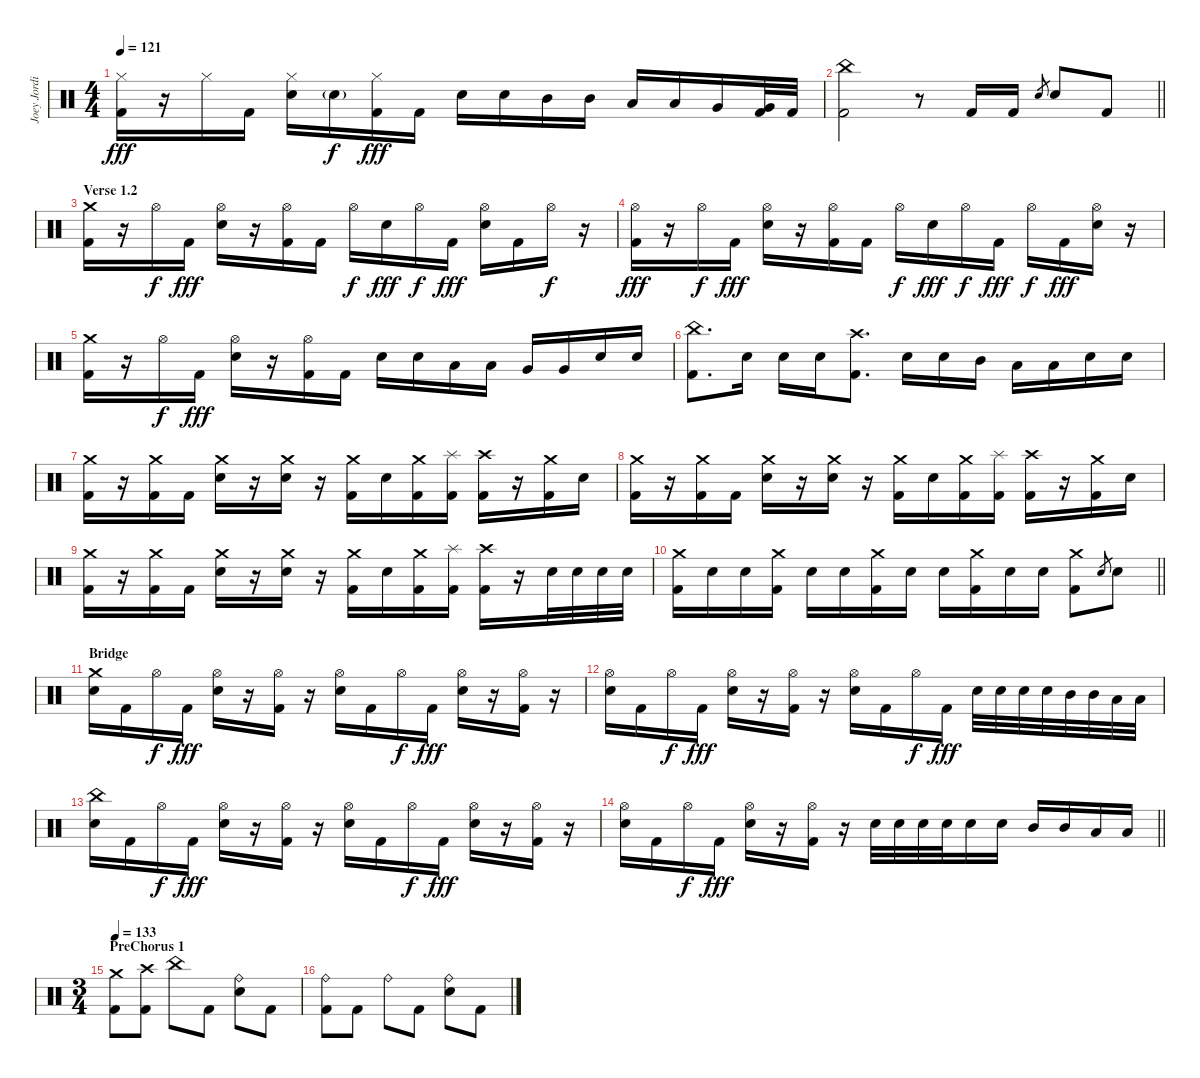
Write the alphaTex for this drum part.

\track ("Joey Jordison" "Joey Jordi") {instrument percussion}
\staff {score}
\articulation defaults
\ts (4 4)
\tempo 121
\clef neutral
\ks c
("Hi-Hat (closed)" "Kick (hit) 2").16{dy fff} r.16 "Hi-Hat (closed)".16 "Kick (hit) 2".16 ("Hi-Hat (closed)" "Electric Snare (hit)").16 "Electric Snare (hit)"{g}.16{dy f} ("Hi-Hat (closed)" "Kick (hit) 2").16{dy fff} "Kick (hit) 2".16 "Electric Snare (hit)".16 "Electric Snare (hit)".16 "Mid Tom (hit)".16 "Mid Tom (hit)".16 "Low Tom (hit)".16 "Low Tom (hit)".16 "Very Low Tom (hit)".16 ("Very Low Tom (hit)" "Kick (hit) 2").32 "Kick (hit) 2".32 |
\barLineRight lightlight
("China (hit)" "Kick (hit) 2").2 r.8 "Kick (hit) 2".16 "Kick (hit) 2".16 "Electric Snare (hit)".8{gr} "Electric Snare (hit)".8 "Kick (hit) 2".8 |
\section ("" "Verse 1.2")
("Crash medium (hit)" "Kick (hit) 2").16 r.16 "Hi-Hat (open)".16{dy f} "Kick (hit) 2".16{dy fff} ("Hi-Hat (open)" "Electric Snare (hit)").16 r.16 ("Hi-Hat (open)" "Kick (hit) 2").16 "Kick (hit) 2".16 "Hi-Hat (open)".16{dy f} "Electric Snare (hit)".16{dy fff} "Hi-Hat (open)".16{dy f} "Kick (hit) 2".16{dy fff} ("Hi-Hat (open)" "Electric Snare (hit)").16 "Kick (hit) 2".16 "Hi-Hat (open)".16{dy f} r.16 |
("Hi-Hat (open)" "Kick (hit) 2").16{dy fff} r.16 "Hi-Hat (open)".16{dy f} "Kick (hit) 2".16{dy fff} ("Hi-Hat (open)" "Electric Snare (hit)").16 r.16 ("Hi-Hat (open)" "Kick (hit) 2").16 "Kick (hit) 2".16 "Hi-Hat (open)".16{dy f} "Electric Snare (hit)".16{dy fff} "Hi-Hat (open)".16{dy f} "Kick (hit) 2".16{dy fff} "Hi-Hat (open)".16{dy f} "Kick (hit) 2".16{dy fff} ("Hi-Hat (open)" "Electric Snare (hit)").16 r.16 |
("Crash medium (hit)" "Kick (hit) 2").16 r.16 "Hi-Hat (open)".16{dy f} "Kick (hit) 2".16{dy fff} ("Hi-Hat (open)" "Electric Snare (hit)").16 r.16 ("Hi-Hat (open)" "Kick (hit) 2").16 "Kick (hit) 2".16 "Electric Snare (hit)".16 "Electric Snare (hit)".16 "Low Tom (hit)".16 "Low Tom (hit)".16 "Very Low Tom (hit)".16 "Very Low Tom (hit)".16 "Electric Snare (hit)".16 "Electric Snare (hit)".16 |
("China (hit)" "Kick (hit) 2").8{d} "Electric Snare (hit)".16 "Electric Snare (hit)".16 "Electric Snare (hit)".16 ("Crash high (hit)" "Kick (hit) 2").8{d} "Electric Snare (hit)".16 "Electric Snare (hit)".16 "Mid Tom (hit)".16 "Low Tom (hit)".16 "Low Tom (hit)".16 "Electric Snare (hit)".16 "Electric Snare (hit)".16 |
("Crash medium (hit)" "Kick (hit) 2").16 r.16 ("Crash medium (hit)" "Kick (hit) 2").16 "Kick (hit) 2".16 ("Crash medium (hit)" "Electric Snare (hit)").16 r.16 ("Crash medium (hit)" "Electric Snare (hit)").16 r.16 ("Crash medium (hit)" "Kick (hit) 2").16 "Electric Snare (hit)".16 ("Crash medium (hit)" "Kick (hit) 2").16 ("Splash (hit)" "Kick (hit) 2").16 ("Crash high (hit)" "Kick (hit) 2").16 r.16 ("Crash medium (hit)" "Kick (hit) 2").16 "Electric Snare (hit)".16 |
("Crash medium (hit)" "Kick (hit) 2").16 r.16 ("Crash medium (hit)" "Kick (hit) 2").16 "Kick (hit) 2".16 ("Crash medium (hit)" "Electric Snare (hit)").16 r.16 ("Crash medium (hit)" "Electric Snare (hit)").16 r.16 ("Crash medium (hit)" "Kick (hit) 2").16 "Electric Snare (hit)".16 ("Crash medium (hit)" "Kick (hit) 2").16 ("Splash (hit)" "Kick (hit) 2").16 ("Crash high (hit)" "Kick (hit) 2").16 r.16 ("Crash medium (hit)" "Kick (hit) 2").16 "Electric Snare (hit)".16 |
("Crash medium (hit)" "Kick (hit) 2").16 r.16 ("Crash medium (hit)" "Kick (hit) 2").16 "Kick (hit) 2".16 ("Crash medium (hit)" "Electric Snare (hit)").16 r.16 ("Crash medium (hit)" "Electric Snare (hit)").16 r.16 ("Crash medium (hit)" "Kick (hit) 2").16 "Electric Snare (hit)".16 ("Crash medium (hit)" "Kick (hit) 2").16 ("Splash (hit)" "Kick (hit) 2").16 ("Crash high (hit)" "Kick (hit) 2").16 r.16 "Electric Snare (hit)".32 "Electric Snare (hit)".32 "Electric Snare (hit)".32 "Electric Snare (hit)".32 |
\barLineRight lightlight
("Crash medium (hit)" "Kick (hit) 2").16 "Electric Snare (hit)".16 "Electric Snare (hit)".16 ("Crash medium (hit)" "Kick (hit) 2").16 "Electric Snare (hit)".16 "Electric Snare (hit)".16 ("Crash medium (hit)" "Kick (hit) 2").16 "Electric Snare (hit)".16 "Electric Snare (hit)".16 ("Crash medium (hit)" "Kick (hit) 2").16 "Electric Snare (hit)".16 "Electric Snare (hit)".16 ("Crash medium (hit)" "Kick (hit) 2").8 "Electric Snare (hit)".8{gr} "Electric Snare (hit)".8 |
\section ("" "Bridge")
("Crash medium (hit)" "Electric Snare (hit)").16 "Kick (hit) 2".16 "Hi-Hat (open)".16{dy f} "Kick (hit) 2".16{dy fff} ("Hi-Hat (open)" "Electric Snare (hit)").16 r.16 ("Hi-Hat (open)" "Kick (hit) 2").16 r.16 ("Hi-Hat (open)" "Electric Snare (hit)").16 "Kick (hit) 2".16 "Hi-Hat (open)".16{dy f} "Kick (hit) 2".16{dy fff} ("Hi-Hat (open)" "Electric Snare (hit)").16 r.16 ("Hi-Hat (open)" "Kick (hit) 2").16 r.16 |
("Hi-Hat (open)" "Electric Snare (hit)").16 "Kick (hit) 2".16 "Hi-Hat (open)".16{dy f} "Kick (hit) 2".16{dy fff} ("Hi-Hat (open)" "Electric Snare (hit)").16 r.16 ("Hi-Hat (open)" "Kick (hit) 2").16 r.16 ("Hi-Hat (open)" "Electric Snare (hit)").16 "Kick (hit) 2".16 "Hi-Hat (open)".16{dy f} "Kick (hit) 2".16{dy fff} "Electric Snare (hit)".32 "Electric Snare (hit)".32 "Electric Snare (hit)".32 "Electric Snare (hit)".32 "Mid Tom (hit)".32 "Mid Tom (hit)".32 "Low Tom (hit)".32 "Low Tom (hit)".32 |
("China (hit)" "Electric Snare (hit)").16 "Kick (hit) 2".16 "Hi-Hat (open)".16{dy f} "Kick (hit) 2".16{dy fff} ("Hi-Hat (open)" "Electric Snare (hit)").16 r.16 ("Hi-Hat (open)" "Kick (hit) 2").16 r.16 ("Hi-Hat (open)" "Electric Snare (hit)").16 "Kick (hit) 2".16 "Hi-Hat (open)".16{dy f} "Kick (hit) 2".16{dy fff} ("Hi-Hat (open)" "Electric Snare (hit)").16 r.16 ("Hi-Hat (open)" "Kick (hit) 2").16 r.16 |
\barLineRight lightlight
("Hi-Hat (open)" "Electric Snare (hit)").16 "Kick (hit) 2".16 "Hi-Hat (open)".16{dy f} "Kick (hit) 2".16{dy fff} ("Hi-Hat (open)" "Electric Snare (hit)").16 r.16 ("Hi-Hat (open)" "Kick (hit) 2").16 r.16 "Electric Snare (hit)".32 "Electric Snare (hit)".32 "Electric Snare (hit)".32 "Electric Snare (hit)".32 "Electric Snare (hit)".16 "Electric Snare (hit)".16 "Mid Tom (hit)".16 "Mid Tom (hit)".16 "Low Tom (hit)".16 "Low Tom (hit)".16 |
\ts (3 4)
\section ("" "PreChorus 1")
\tempo 133
("Crash medium (hit)" "Kick (hit) 2").8 ("Crash high (hit)" "Kick (hit) 2").8 "China (hit)".8 "Kick (hit) 2".8 ("Ride (bell)" "Electric Snare (hit)").8 "Kick (hit) 2".8 |
("Ride (bell)" "Kick (hit) 2").8 "Kick (hit) 2".8 "Ride (bell)".8 "Kick (hit) 2".8 ("Ride (bell)" "Electric Snare (hit)").8 "Kick (hit) 2".8
